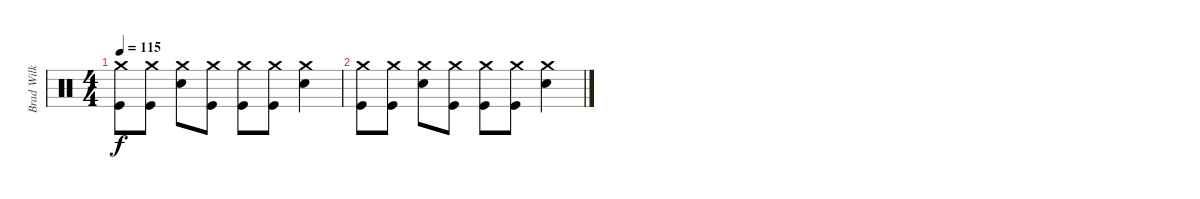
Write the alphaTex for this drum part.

\track ("Brad Wilk - Drums" "Brad Wilk ") {instrument percussion}
\staff {score}
\articulation defaults
\ts (4 4)
\tempo 115
\clef neutral
\ks c
("Crash medium (hit)" "Kick (hit)").8{dy f} ("Crash medium (hit)" "Kick (hit)").8 ("Snare (hit) 2" "Crash medium (hit)").8 ("Crash medium (hit)" "Kick (hit)").8 ("Crash medium (hit)" "Kick (hit)").8 ("Crash medium (hit)" "Kick (hit)").8 ("Snare (hit) 2" "Crash medium (hit)").4 |
("Crash medium (hit)" "Kick (hit)").8 ("Crash medium (hit)" "Kick (hit)").8 ("Snare (hit) 2" "Crash medium (hit)").8 ("Crash medium (hit)" "Kick (hit)").8 ("Crash medium (hit)" "Kick (hit)").8 ("Crash medium (hit)" "Kick (hit)").8 ("Snare (hit) 2" "Crash medium (hit)").4
